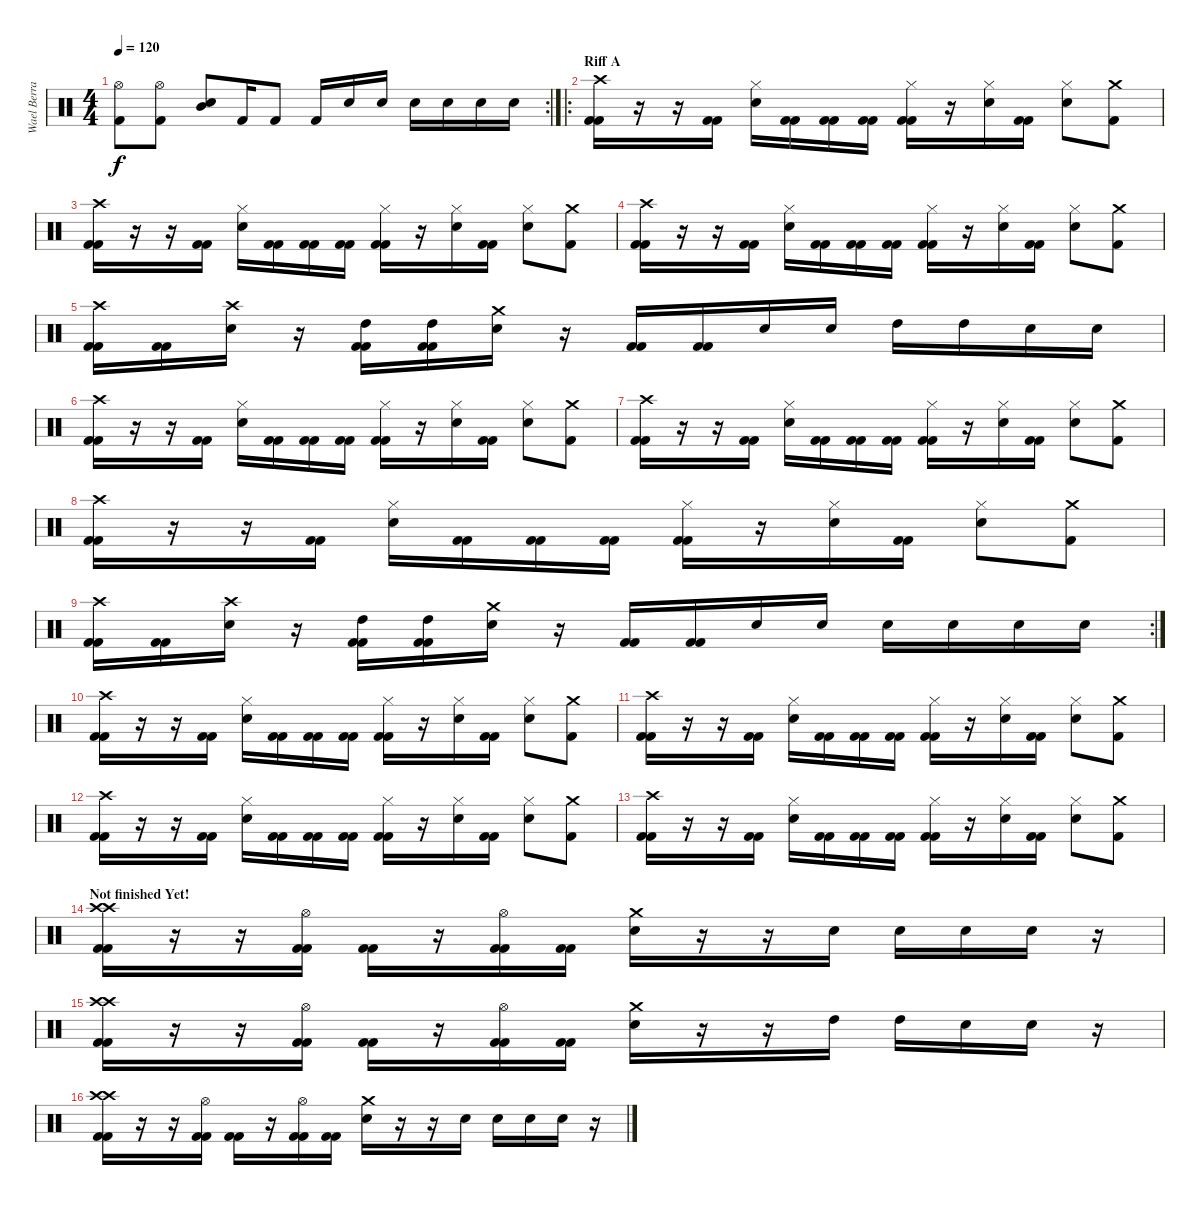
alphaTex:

\track ("Wael Berrais" "Wael Berra") {instrument percussion}
\staff {score}
\articulation defaults
\rc 2
\ts (4 4)
\tempo 120
\clef neutral
\ks c
("Hi-Hat (open)" "Kick (hit) 2").8{dy f} ("Hi-Hat (open)" "Kick (hit) 2").8 ("Mid Tom (hit)" "Electric Snare (hit)").8 "Kick (hit) 2".16 "Kick (hit) 2".8 "Kick (hit) 2".16 "Electric Snare (hit)".16 "Electric Snare (hit)".16 "Electric Snare (hit)".16 "Electric Snare (hit)".16 "Electric Snare (hit)".16 "Electric Snare (hit)".16 |
\ro
\section ("" "Riff A")
("Crash high (hit)" "Kick (hit) 2" "Kick (hit) 2").16 r.16 r.16 ("Kick (hit) 2" "Kick (hit) 2").16 ("Hi-Hat (closed)" "Electric Snare (hit)").16 ("Kick (hit) 2" "Kick (hit) 2").16 ("Kick (hit) 2" "Kick (hit) 2").16 ("Kick (hit) 2" "Kick (hit) 2").16 ("Hi-Hat (closed)" "Kick (hit) 2" "Kick (hit) 2").16 r.16 ("Hi-Hat (closed)" "Electric Snare (hit)").16 ("Kick (hit) 2" "Kick (hit) 2").16 ("Hi-Hat (closed)" "Electric Snare (hit)").8 ("Crash medium (hit)" "Kick (hit) 2").8 |
("Crash high (hit)" "Kick (hit) 2" "Kick (hit) 2").16 r.16 r.16 ("Kick (hit) 2" "Kick (hit) 2").16 ("Hi-Hat (closed)" "Electric Snare (hit)").16 ("Kick (hit) 2" "Kick (hit) 2").16 ("Kick (hit) 2" "Kick (hit) 2").16 ("Kick (hit) 2" "Kick (hit) 2").16 ("Hi-Hat (closed)" "Kick (hit) 2" "Kick (hit) 2").16 r.16 ("Hi-Hat (closed)" "Electric Snare (hit)").16 ("Kick (hit) 2" "Kick (hit) 2").16 ("Hi-Hat (closed)" "Electric Snare (hit)").8 ("Crash medium (hit)" "Kick (hit) 2").8 |
("Crash high (hit)" "Kick (hit) 2" "Kick (hit) 2").16 r.16 r.16 ("Kick (hit) 2" "Kick (hit) 2").16 ("Hi-Hat (closed)" "Electric Snare (hit)").16 ("Kick (hit) 2" "Kick (hit) 2").16 ("Kick (hit) 2" "Kick (hit) 2").16 ("Kick (hit) 2" "Kick (hit) 2").16 ("Hi-Hat (closed)" "Kick (hit) 2" "Kick (hit) 2").16 r.16 ("Hi-Hat (closed)" "Electric Snare (hit)").16 ("Kick (hit) 2" "Kick (hit) 2").16 ("Hi-Hat (closed)" "Electric Snare (hit)").8 ("Crash medium (hit)" "Kick (hit) 2").8 |
("Crash high (hit)" "Kick (hit) 2" "Kick (hit) 2").16 ("Kick (hit) 2" "Kick (hit) 2").16 ("Electric Snare (hit)" "Crash high (hit)").16 r.16 ("High Tom (hit)" "Kick (hit) 2" "Kick (hit) 2").16 ("High Tom (hit)" "Kick (hit) 2" "Kick (hit) 2").16 ("Electric Snare (hit)" "Crash medium (hit)").16 r.16 ("Kick (hit) 2" "Kick (hit) 2").16 ("Kick (hit) 2" "Kick (hit) 2").16 "Electric Snare (hit)".16 "Electric Snare (hit)".16 "High Tom (hit)".16 "High Tom (hit)".16 "Electric Snare (hit)".16 "Electric Snare (hit)".16 |
("Crash high (hit)" "Kick (hit) 2" "Kick (hit) 2").16 r.16 r.16 ("Kick (hit) 2" "Kick (hit) 2").16 ("Hi-Hat (closed)" "Electric Snare (hit)").16 ("Kick (hit) 2" "Kick (hit) 2").16 ("Kick (hit) 2" "Kick (hit) 2").16 ("Kick (hit) 2" "Kick (hit) 2").16 ("Hi-Hat (closed)" "Kick (hit) 2" "Kick (hit) 2").16 r.16 ("Hi-Hat (closed)" "Electric Snare (hit)").16 ("Kick (hit) 2" "Kick (hit) 2").16 ("Hi-Hat (closed)" "Electric Snare (hit)").8 ("Crash medium (hit)" "Kick (hit) 2").8 |
("Crash high (hit)" "Kick (hit) 2" "Kick (hit) 2").16 r.16 r.16 ("Kick (hit) 2" "Kick (hit) 2").16 ("Hi-Hat (closed)" "Electric Snare (hit)").16 ("Kick (hit) 2" "Kick (hit) 2").16 ("Kick (hit) 2" "Kick (hit) 2").16 ("Kick (hit) 2" "Kick (hit) 2").16 ("Hi-Hat (closed)" "Kick (hit) 2" "Kick (hit) 2").16 r.16 ("Hi-Hat (closed)" "Electric Snare (hit)").16 ("Kick (hit) 2" "Kick (hit) 2").16 ("Hi-Hat (closed)" "Electric Snare (hit)").8 ("Crash medium (hit)" "Kick (hit) 2").8 |
("Crash high (hit)" "Kick (hit) 2" "Kick (hit) 2").16 r.16 r.16 ("Kick (hit) 2" "Kick (hit) 2").16 ("Hi-Hat (closed)" "Electric Snare (hit)").16 ("Kick (hit) 2" "Kick (hit) 2").16 ("Kick (hit) 2" "Kick (hit) 2").16 ("Kick (hit) 2" "Kick (hit) 2").16 ("Hi-Hat (closed)" "Kick (hit) 2" "Kick (hit) 2").16 r.16 ("Hi-Hat (closed)" "Electric Snare (hit)").16 ("Kick (hit) 2" "Kick (hit) 2").16 ("Hi-Hat (closed)" "Electric Snare (hit)").8 ("Crash medium (hit)" "Kick (hit) 2").8 |
\rc 2
("Crash high (hit)" "Kick (hit) 2" "Kick (hit) 2").16 ("Kick (hit) 2" "Kick (hit) 2").16 ("Electric Snare (hit)" "Crash high (hit)").16 r.16 ("High Tom (hit)" "Kick (hit) 2" "Kick (hit) 2").16 ("High Tom (hit)" "Kick (hit) 2" "Kick (hit) 2").16 ("Electric Snare (hit)" "Crash medium (hit)").16 r.16 ("Kick (hit) 2" "Kick (hit) 2").16 ("Kick (hit) 2" "Kick (hit) 2").16 "Electric Snare (hit)".16 "Electric Snare (hit)".16 "Electric Snare (hit)".16 "Electric Snare (hit)".16 "Electric Snare (hit)".16 "Electric Snare (hit)".16 |
("Crash high (hit)" "Kick (hit) 2" "Kick (hit) 2").16 r.16 r.16 ("Kick (hit) 2" "Kick (hit) 2").16 ("Hi-Hat (closed)" "Electric Snare (hit)").16 ("Kick (hit) 2" "Kick (hit) 2").16 ("Kick (hit) 2" "Kick (hit) 2").16 ("Kick (hit) 2" "Kick (hit) 2").16 ("Hi-Hat (closed)" "Kick (hit) 2" "Kick (hit) 2").16 r.16 ("Hi-Hat (closed)" "Electric Snare (hit)").16 ("Kick (hit) 2" "Kick (hit) 2").16 ("Hi-Hat (closed)" "Electric Snare (hit)").8 ("Crash medium (hit)" "Kick (hit) 2").8 |
("Crash high (hit)" "Kick (hit) 2" "Kick (hit) 2").16 r.16 r.16 ("Kick (hit) 2" "Kick (hit) 2").16 ("Hi-Hat (closed)" "Electric Snare (hit)").16 ("Kick (hit) 2" "Kick (hit) 2").16 ("Kick (hit) 2" "Kick (hit) 2").16 ("Kick (hit) 2" "Kick (hit) 2").16 ("Hi-Hat (closed)" "Kick (hit) 2" "Kick (hit) 2").16 r.16 ("Hi-Hat (closed)" "Electric Snare (hit)").16 ("Kick (hit) 2" "Kick (hit) 2").16 ("Hi-Hat (closed)" "Electric Snare (hit)").8 ("Crash medium (hit)" "Kick (hit) 2").8 |
("Crash high (hit)" "Kick (hit) 2" "Kick (hit) 2").16 r.16 r.16 ("Kick (hit) 2" "Kick (hit) 2").16 ("Hi-Hat (closed)" "Electric Snare (hit)").16 ("Kick (hit) 2" "Kick (hit) 2").16 ("Kick (hit) 2" "Kick (hit) 2").16 ("Kick (hit) 2" "Kick (hit) 2").16 ("Hi-Hat (closed)" "Kick (hit) 2" "Kick (hit) 2").16 r.16 ("Hi-Hat (closed)" "Electric Snare (hit)").16 ("Kick (hit) 2" "Kick (hit) 2").16 ("Hi-Hat (closed)" "Electric Snare (hit)").8 ("Crash medium (hit)" "Kick (hit) 2").8 |
("Crash high (hit)" "Kick (hit) 2" "Kick (hit) 2").16 r.16 r.16 ("Kick (hit) 2" "Kick (hit) 2").16 ("Hi-Hat (closed)" "Electric Snare (hit)").16 ("Kick (hit) 2" "Kick (hit) 2").16 ("Kick (hit) 2" "Kick (hit) 2").16 ("Kick (hit) 2" "Kick (hit) 2").16 ("Hi-Hat (closed)" "Kick (hit) 2" "Kick (hit) 2").16 r.16 ("Hi-Hat (closed)" "Electric Snare (hit)").16 ("Kick (hit) 2" "Kick (hit) 2").16 ("Hi-Hat (closed)" "Electric Snare (hit)").8 ("Crash medium (hit)" "Kick (hit) 2").8 |
\section ("" "Not finished Yet!")
("Crash high (hit)" "Crash high (hit)" "Kick (hit) 2" "Kick (hit) 2").16 r.16 r.16 ("Hi-Hat (open)" "Kick (hit) 2" "Kick (hit) 2").16 ("Kick (hit) 2" "Kick (hit) 2").16 r.16 ("Hi-Hat (open)" "Kick (hit) 2" "Kick (hit) 2").16 ("Kick (hit) 2" "Kick (hit) 2").16 ("Crash medium (hit)" "Electric Snare (hit)").16 r.16 r.16 "Electric Snare (hit)".16 "Electric Snare (hit)".16 "Electric Snare (hit)".16 "Electric Snare (hit)".16 r.16 |
("Crash high (hit)" "Crash high (hit)" "Kick (hit) 2" "Kick (hit) 2").16 r.16 r.16 ("Hi-Hat (open)" "Kick (hit) 2" "Kick (hit) 2").16 ("Kick (hit) 2" "Kick (hit) 2").16 r.16 ("Hi-Hat (open)" "Kick (hit) 2" "Kick (hit) 2").16 ("Kick (hit) 2" "Kick (hit) 2").16 ("Crash medium (hit)" "Electric Snare (hit)").16 r.16 r.16 "High Tom (hit)".16 "High Tom (hit)".16 "Electric Snare (hit)".16 "Electric Snare (hit)".16 r.16 |
("Crash high (hit)" "Crash high (hit)" "Kick (hit) 2" "Kick (hit) 2").16 r.16 r.16 ("Hi-Hat (open)" "Kick (hit) 2" "Kick (hit) 2").16 ("Kick (hit) 2" "Kick (hit) 2").16 r.16 ("Hi-Hat (open)" "Kick (hit) 2" "Kick (hit) 2").16 ("Kick (hit) 2" "Kick (hit) 2").16 ("Crash medium (hit)" "Electric Snare (hit)").16 r.16 r.16 "Electric Snare (hit)".16 "Electric Snare (hit)".16 "Electric Snare (hit)".16 "Electric Snare (hit)".16 r.16
